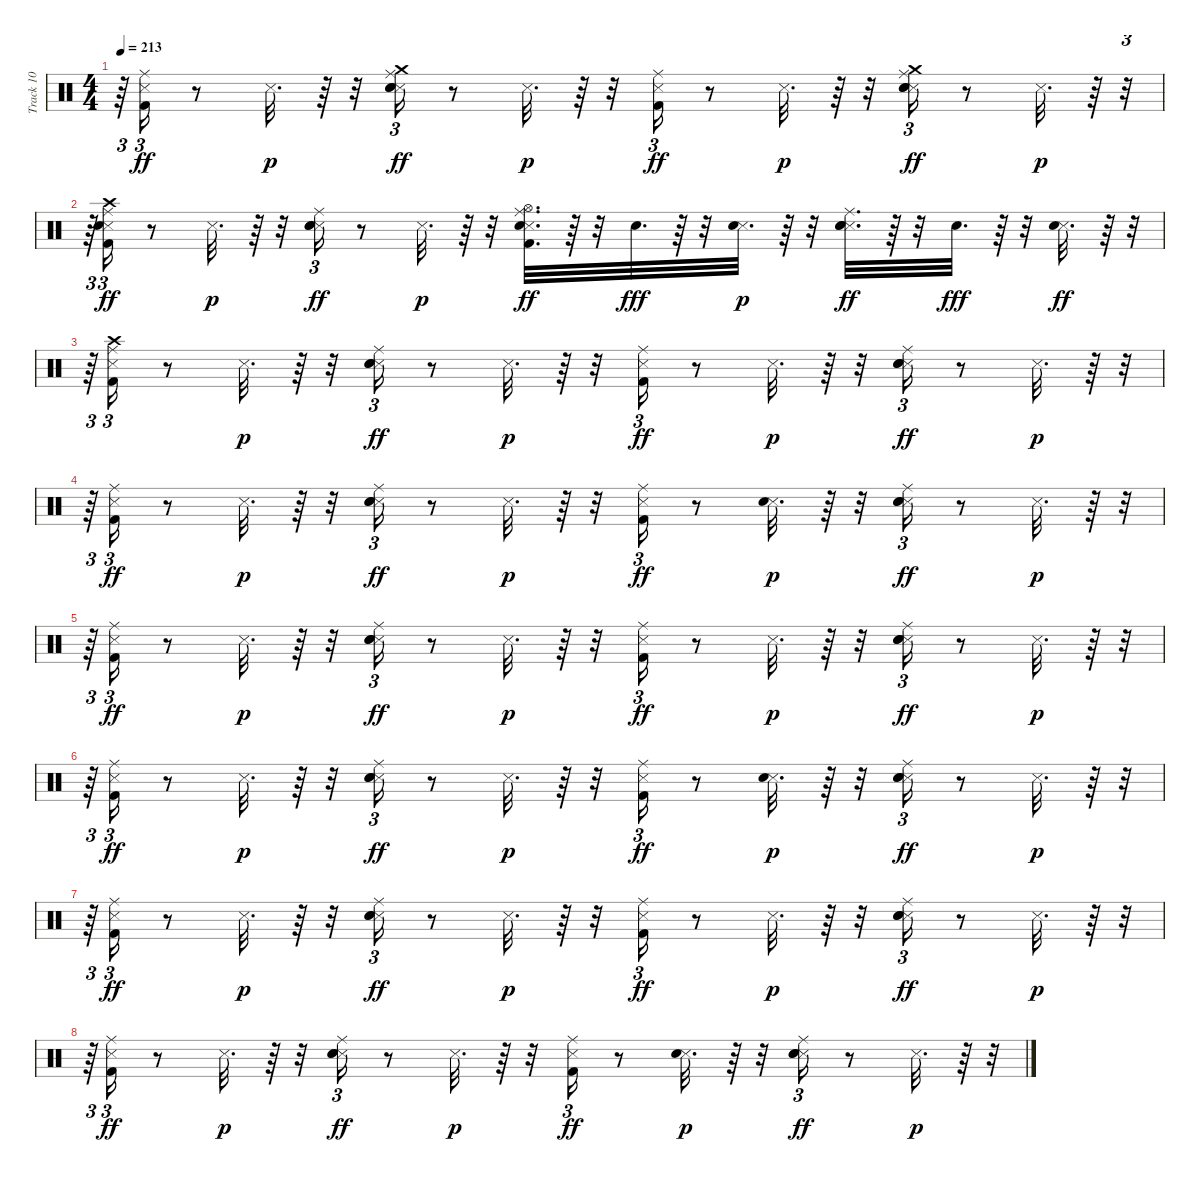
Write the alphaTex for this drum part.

\track ("Track 10" "Track 10") {instrument percussion}
\staff {score}
\articulation defaults
\ts (4 4)
\tempo 213
\clef neutral
\ks c
r.64{tu (3 2) dy p} ("Kick (hit) 2" "Snare (side stick) 3" "Ride (middle)").16{tu (3 2) dy ff} r.8 "Snare (side stick) 3".32{d dy p} r.64 r.32 ("Snare (side stick) 3" "Hand Clap (hit)" "Electric Snare (hit)" "Ride (middle)" "Crash medium (hit)").16{tu (3 2) dy ff} r.8 "Snare (side stick) 3".32{d dy p} r.64 r.32 ("Kick (hit) 2" "Snare (side stick) 3" "Ride (middle)").16{tu (3 2) dy ff} r.8 "Snare (side stick) 3".32{d dy p} r.64 r.32 ("Snare (side stick) 3" "Hand Clap (hit)" "Electric Snare (hit)" "Ride (middle)" "Crash medium (hit)").16{tu (3 2) dy ff} r.8 "Snare (side stick) 3".32{d dy p} r.64 r.32{tu (3 2)} |
r.64{tu (3 2)} ("Kick (hit) 2" "Snare (side stick) 3" "Electric Snare (hit)" "Crash high (hit)" "Ride (middle)").16{tu (3 2) dy ff} r.8 "Snare (side stick) 3".32{d dy p} r.64 r.32 ("Snare (side stick) 3" "Hand Clap (hit)" "Electric Snare (hit)" "Ride (middle)").16{tu (3 2) dy ff} r.8 "Snare (side stick) 3".32{d dy p} r.64 r.32 ("Kick (hit) 2" "Snare (side stick) 3" "Electric Snare (hit)" "Hi-Hat (open)" "Ride (middle)").32{d dy ff} r.64 r.32 "Electric Snare (hit)".32{d dy fff} r.64 r.32 ("Snare (side stick) 3" "Electric Snare (hit)").32{d dy p} r.64 r.32 ("Snare (side stick) 3" "Hand Clap (hit)" "Electric Snare (hit)" "Ride (middle)").32{d dy ff} r.64 r.32 "Electric Snare (hit)".32{d dy fff} r.64 r.32 ("Snare (side stick) 3" "Electric Snare (hit)").32{d dy ff} r.64 r.32{tu (3 2)} |
r.64{tu (3 2)} ("Kick (hit) 2" "Snare (side stick) 3" "Crash high (hit)" "Ride (middle)").16{tu (3 2)} r.8 "Snare (side stick) 3".32{d dy p} r.64 r.32 ("Snare (side stick) 3" "Hand Clap (hit)" "Electric Snare (hit)" "Ride (middle)").16{tu (3 2) dy ff} r.8 "Snare (side stick) 3".32{d dy p} r.64 r.32 ("Kick (hit) 2" "Snare (side stick) 3" "Ride (middle)").16{tu (3 2) dy ff} r.8 "Snare (side stick) 3".32{d dy p} r.64 r.32 ("Snare (side stick) 3" "Hand Clap (hit)" "Electric Snare (hit)" "Ride (middle)").16{tu (3 2) dy ff} r.8 "Snare (side stick) 3".32{d dy p} r.64 r.32{tu (3 2)} |
r.64{tu (3 2)} ("Kick (hit) 2" "Snare (side stick) 3" "Ride (middle)").16{tu (3 2) dy ff} r.8 "Snare (side stick) 3".32{d dy p} r.64 r.32 ("Snare (side stick) 3" "Hand Clap (hit)" "Electric Snare (hit)" "Ride (middle)").16{tu (3 2) dy ff} r.8 "Snare (side stick) 3".32{d dy p} r.64 r.32 ("Kick (hit) 2" "Snare (side stick) 3" "Ride (middle)").16{tu (3 2) dy ff} r.8 ("Snare (side stick) 3" "Electric Snare (hit)").32{d dy p} r.64 r.32 ("Snare (side stick) 3" "Hand Clap (hit)" "Electric Snare (hit)" "Ride (middle)").16{tu (3 2) dy ff} r.8 "Snare (side stick) 3".32{d dy p} r.64 r.32{tu (3 2)} |
r.64{tu (3 2)} ("Kick (hit) 2" "Snare (side stick) 3" "Ride (middle)").16{tu (3 2) dy ff} r.8 "Snare (side stick) 3".32{d dy p} r.64 r.32 ("Snare (side stick) 3" "Hand Clap (hit)" "Electric Snare (hit)" "Ride (middle)").16{tu (3 2) dy ff} r.8 "Snare (side stick) 3".32{d dy p} r.64 r.32 ("Kick (hit) 2" "Snare (side stick) 3" "Ride (middle)").16{tu (3 2) dy ff} r.8 "Snare (side stick) 3".32{d dy p} r.64 r.32 ("Snare (side stick) 3" "Hand Clap (hit)" "Electric Snare (hit)" "Ride (middle)").16{tu (3 2) dy ff} r.8 "Snare (side stick) 3".32{d dy p} r.64 r.32{tu (3 2)} |
r.64{tu (3 2)} ("Kick (hit) 2" "Snare (side stick) 3" "Ride (middle)").16{tu (3 2) dy ff} r.8 "Snare (side stick) 3".32{d dy p} r.64 r.32 ("Snare (side stick) 3" "Hand Clap (hit)" "Electric Snare (hit)" "Ride (middle)").16{tu (3 2) dy ff} r.8 "Snare (side stick) 3".32{d dy p} r.64 r.32 ("Kick (hit) 2" "Snare (side stick) 3" "Ride (middle)").16{tu (3 2) dy ff} r.8 ("Snare (side stick) 3" "Electric Snare (hit)").32{d dy p} r.64 r.32 ("Snare (side stick) 3" "Hand Clap (hit)" "Electric Snare (hit)" "Ride (middle)").16{tu (3 2) dy ff} r.8 "Snare (side stick) 3".32{d dy p} r.64 r.32{tu (3 2)} |
r.64{tu (3 2)} ("Kick (hit) 2" "Snare (side stick) 3" "Ride (middle)").16{tu (3 2) dy ff} r.8 "Snare (side stick) 3".32{d dy p} r.64 r.32 ("Snare (side stick) 3" "Hand Clap (hit)" "Electric Snare (hit)" "Ride (middle)").16{tu (3 2) dy ff} r.8 "Snare (side stick) 3".32{d dy p} r.64 r.32 ("Kick (hit) 2" "Snare (side stick) 3" "Ride (middle)").16{tu (3 2) dy ff} r.8 "Snare (side stick) 3".32{d dy p} r.64 r.32 ("Snare (side stick) 3" "Hand Clap (hit)" "Electric Snare (hit)" "Ride (middle)").16{tu (3 2) dy ff} r.8 "Snare (side stick) 3".32{d dy p} r.64 r.32{tu (3 2)} |
r.64{tu (3 2)} ("Kick (hit) 2" "Snare (side stick) 3" "Ride (middle)").16{tu (3 2) dy ff} r.8 "Snare (side stick) 3".32{d dy p} r.64 r.32 ("Snare (side stick) 3" "Hand Clap (hit)" "Electric Snare (hit)" "Ride (middle)").16{tu (3 2) dy ff} r.8 "Snare (side stick) 3".32{d dy p} r.64 r.32 ("Kick (hit) 2" "Snare (side stick) 3" "Ride (middle)").16{tu (3 2) dy ff} r.8 ("Snare (side stick) 3" "Electric Snare (hit)").32{d dy p} r.64 r.32 ("Snare (side stick) 3" "Hand Clap (hit)" "Electric Snare (hit)" "Ride (middle)").16{tu (3 2) dy ff} r.8 "Snare (side stick) 3".32{d dy p} r.64 r.32{tu (3 2)}
